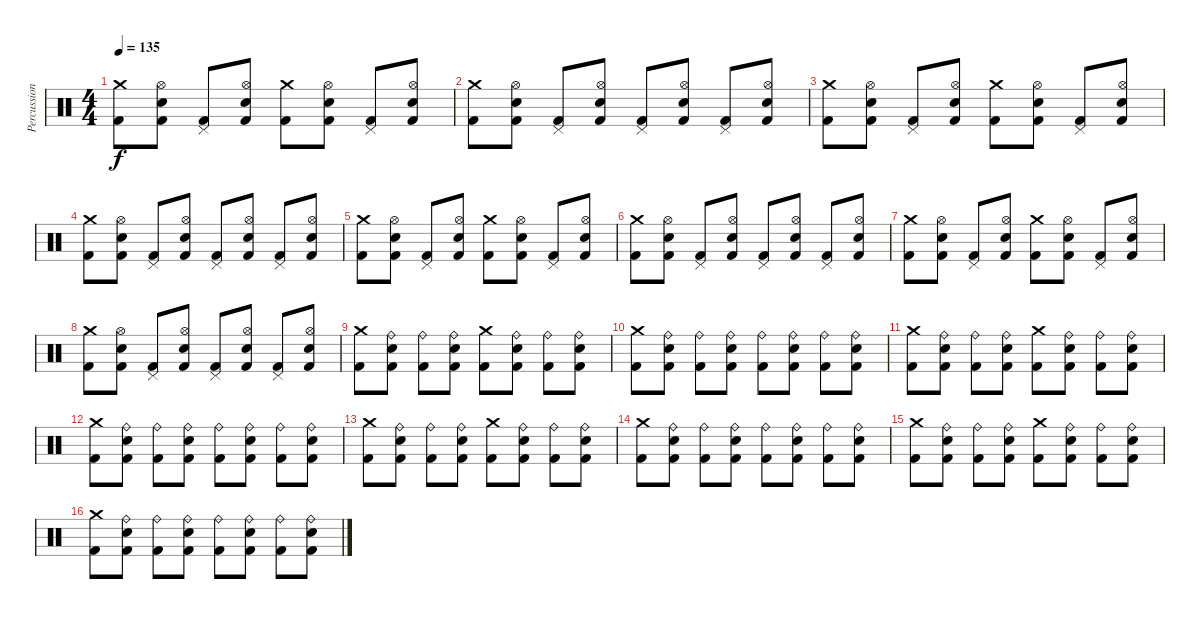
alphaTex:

\track ("Percussion" "Percussion") {instrument percussion}
\staff {score}
\articulation defaults
\ts (4 4)
\tempo 135
\clef neutral
\ks c
("Crash medium (hit)" "Kick (hit) 2").8{dy f} ("Hi-Hat (open)" "Kick (hit) 2" "Electric Snare (hit)").8 ("Pedal Hi-Hat (hit)" "Kick (hit) 2").8 ("Hi-Hat (open)" "Kick (hit) 2" "Electric Snare (hit)").8 ("Crash medium (hit)" "Kick (hit) 2").8 ("Hi-Hat (open)" "Kick (hit) 2" "Electric Snare (hit)").8 ("Pedal Hi-Hat (hit)" "Kick (hit) 2").8 ("Hi-Hat (open)" "Kick (hit) 2" "Electric Snare (hit)").8 |
("Crash medium (hit)" "Kick (hit) 2").8 ("Hi-Hat (open)" "Kick (hit) 2" "Electric Snare (hit)").8 ("Pedal Hi-Hat (hit)" "Kick (hit) 2").8 ("Hi-Hat (open)" "Kick (hit) 2" "Electric Snare (hit)").8 ("Pedal Hi-Hat (hit)" "Kick (hit) 2").8 ("Hi-Hat (open)" "Kick (hit) 2" "Electric Snare (hit)").8 ("Pedal Hi-Hat (hit)" "Kick (hit) 2").8 ("Hi-Hat (open)" "Kick (hit) 2" "Electric Snare (hit)").8 |
("Crash medium (hit)" "Kick (hit) 2").8 ("Hi-Hat (open)" "Kick (hit) 2" "Electric Snare (hit)").8 ("Pedal Hi-Hat (hit)" "Kick (hit) 2").8 ("Hi-Hat (open)" "Kick (hit) 2" "Electric Snare (hit)").8 ("Crash medium (hit)" "Kick (hit) 2").8 ("Hi-Hat (open)" "Kick (hit) 2" "Electric Snare (hit)").8 ("Pedal Hi-Hat (hit)" "Kick (hit) 2").8 ("Hi-Hat (open)" "Kick (hit) 2" "Electric Snare (hit)").8 |
("Crash medium (hit)" "Kick (hit) 2").8 ("Hi-Hat (open)" "Kick (hit) 2" "Electric Snare (hit)").8 ("Pedal Hi-Hat (hit)" "Kick (hit) 2").8 ("Hi-Hat (open)" "Kick (hit) 2" "Electric Snare (hit)").8 ("Pedal Hi-Hat (hit)" "Kick (hit) 2").8 ("Hi-Hat (open)" "Kick (hit) 2" "Electric Snare (hit)").8 ("Pedal Hi-Hat (hit)" "Kick (hit) 2").8 ("Hi-Hat (open)" "Kick (hit) 2" "Electric Snare (hit)").8 |
("Crash medium (hit)" "Kick (hit) 2").8 ("Hi-Hat (open)" "Kick (hit) 2" "Electric Snare (hit)").8 ("Pedal Hi-Hat (hit)" "Kick (hit) 2").8 ("Hi-Hat (open)" "Kick (hit) 2" "Electric Snare (hit)").8 ("Crash medium (hit)" "Kick (hit) 2").8 ("Hi-Hat (open)" "Kick (hit) 2" "Electric Snare (hit)").8 ("Pedal Hi-Hat (hit)" "Kick (hit) 2").8 ("Hi-Hat (open)" "Kick (hit) 2" "Electric Snare (hit)").8 |
("Crash medium (hit)" "Kick (hit) 2").8 ("Hi-Hat (open)" "Kick (hit) 2" "Electric Snare (hit)").8 ("Pedal Hi-Hat (hit)" "Kick (hit) 2").8 ("Hi-Hat (open)" "Kick (hit) 2" "Electric Snare (hit)").8 ("Pedal Hi-Hat (hit)" "Kick (hit) 2").8 ("Hi-Hat (open)" "Kick (hit) 2" "Electric Snare (hit)").8 ("Pedal Hi-Hat (hit)" "Kick (hit) 2").8 ("Hi-Hat (open)" "Kick (hit) 2" "Electric Snare (hit)").8 |
("Crash medium (hit)" "Kick (hit) 2").8 ("Hi-Hat (open)" "Kick (hit) 2" "Electric Snare (hit)").8 ("Pedal Hi-Hat (hit)" "Kick (hit) 2").8 ("Hi-Hat (open)" "Kick (hit) 2" "Electric Snare (hit)").8 ("Crash medium (hit)" "Kick (hit) 2").8 ("Hi-Hat (open)" "Kick (hit) 2" "Electric Snare (hit)").8 ("Pedal Hi-Hat (hit)" "Kick (hit) 2").8 ("Hi-Hat (open)" "Kick (hit) 2" "Electric Snare (hit)").8 |
("Crash medium (hit)" "Kick (hit) 2").8 ("Hi-Hat (open)" "Kick (hit) 2" "Electric Snare (hit)").8 ("Pedal Hi-Hat (hit)" "Kick (hit) 2").8 ("Hi-Hat (open)" "Kick (hit) 2" "Electric Snare (hit)").8 ("Pedal Hi-Hat (hit)" "Kick (hit) 2").8 ("Hi-Hat (open)" "Kick (hit) 2" "Electric Snare (hit)").8 ("Pedal Hi-Hat (hit)" "Kick (hit) 2").8 ("Hi-Hat (open)" "Kick (hit) 2" "Electric Snare (hit)").8 |
("Crash medium (hit)" "Kick (hit) 2").8 ("Ride (bell)" "Kick (hit) 2" "Electric Snare (hit)").8 ("Ride (bell)" "Kick (hit) 2").8 ("Ride (bell)" "Kick (hit) 2" "Electric Snare (hit)").8 ("Crash medium (hit)" "Kick (hit) 2").8 ("Ride (bell)" "Kick (hit) 2" "Electric Snare (hit)").8 ("Ride (bell)" "Kick (hit) 2").8 ("Ride (bell)" "Kick (hit) 2" "Electric Snare (hit)").8 |
("Crash medium (hit)" "Kick (hit) 2").8 ("Ride (bell)" "Kick (hit) 2" "Electric Snare (hit)").8 ("Ride (bell)" "Kick (hit) 2").8 ("Ride (bell)" "Kick (hit) 2" "Electric Snare (hit)").8 ("Ride (bell)" "Kick (hit) 2").8 ("Ride (bell)" "Kick (hit) 2" "Electric Snare (hit)").8 ("Ride (bell)" "Kick (hit) 2").8 ("Ride (bell)" "Kick (hit) 2" "Electric Snare (hit)").8 |
("Crash medium (hit)" "Kick (hit) 2").8 ("Ride (bell)" "Kick (hit) 2" "Electric Snare (hit)").8 ("Ride (bell)" "Kick (hit) 2").8 ("Ride (bell)" "Kick (hit) 2" "Electric Snare (hit)").8 ("Crash medium (hit)" "Kick (hit) 2").8 ("Ride (bell)" "Kick (hit) 2" "Electric Snare (hit)").8 ("Ride (bell)" "Kick (hit) 2").8 ("Ride (bell)" "Kick (hit) 2" "Electric Snare (hit)").8 |
("Crash medium (hit)" "Kick (hit) 2").8 ("Ride (bell)" "Kick (hit) 2" "Electric Snare (hit)").8 ("Ride (bell)" "Kick (hit) 2").8 ("Ride (bell)" "Kick (hit) 2" "Electric Snare (hit)").8 ("Ride (bell)" "Kick (hit) 2").8 ("Ride (bell)" "Kick (hit) 2" "Electric Snare (hit)").8 ("Ride (bell)" "Kick (hit) 2").8 ("Ride (bell)" "Kick (hit) 2" "Electric Snare (hit)").8 |
("Crash medium (hit)" "Kick (hit) 2").8 ("Ride (bell)" "Kick (hit) 2" "Electric Snare (hit)").8 ("Ride (bell)" "Kick (hit) 2").8 ("Ride (bell)" "Kick (hit) 2" "Electric Snare (hit)").8 ("Crash medium (hit)" "Kick (hit) 2").8 ("Ride (bell)" "Kick (hit) 2" "Electric Snare (hit)").8 ("Ride (bell)" "Kick (hit) 2").8 ("Ride (bell)" "Kick (hit) 2" "Electric Snare (hit)").8 |
("Crash medium (hit)" "Kick (hit) 2").8 ("Ride (bell)" "Kick (hit) 2" "Electric Snare (hit)").8 ("Ride (bell)" "Kick (hit) 2").8 ("Ride (bell)" "Kick (hit) 2" "Electric Snare (hit)").8 ("Ride (bell)" "Kick (hit) 2").8 ("Ride (bell)" "Kick (hit) 2" "Electric Snare (hit)").8 ("Ride (bell)" "Kick (hit) 2").8 ("Ride (bell)" "Kick (hit) 2" "Electric Snare (hit)").8 |
("Crash medium (hit)" "Kick (hit) 2").8 ("Ride (bell)" "Kick (hit) 2" "Electric Snare (hit)").8 ("Ride (bell)" "Kick (hit) 2").8 ("Ride (bell)" "Kick (hit) 2" "Electric Snare (hit)").8 ("Crash medium (hit)" "Kick (hit) 2").8 ("Ride (bell)" "Kick (hit) 2" "Electric Snare (hit)").8 ("Ride (bell)" "Kick (hit) 2").8 ("Ride (bell)" "Kick (hit) 2" "Electric Snare (hit)").8 |
("Crash medium (hit)" "Kick (hit) 2").8 ("Ride (bell)" "Kick (hit) 2" "Electric Snare (hit)").8 ("Ride (bell)" "Kick (hit) 2").8 ("Ride (bell)" "Kick (hit) 2" "Electric Snare (hit)").8 ("Ride (bell)" "Kick (hit) 2").8 ("Ride (bell)" "Kick (hit) 2" "Electric Snare (hit)").8 ("Ride (bell)" "Kick (hit) 2").8 ("Ride (bell)" "Kick (hit) 2" "Electric Snare (hit)").8
